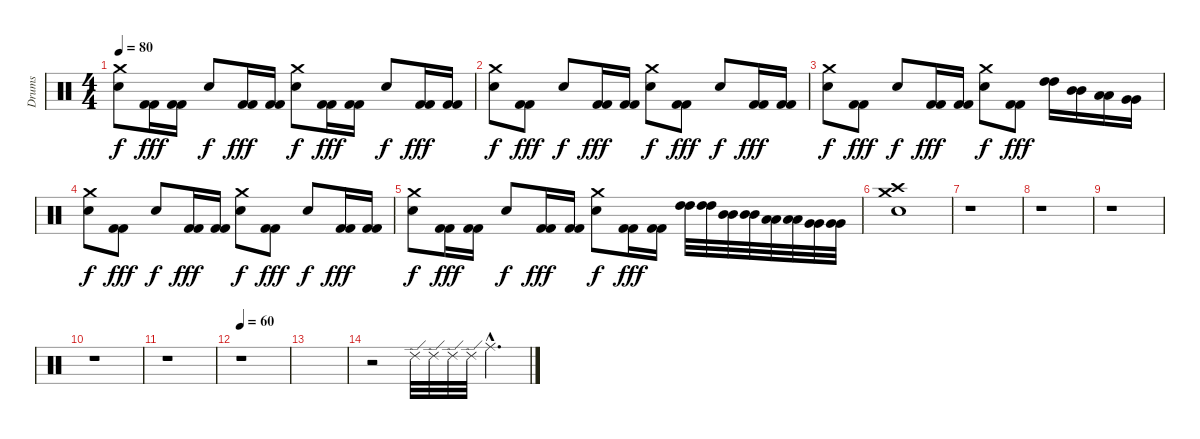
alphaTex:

\track ("Drums" "Drums") {instrument percussion}
\staff {score}
\articulation defaults
\ts (4 4)
\tempo 80
\clef neutral
\ks c
("Electric Snare (hit)" "Crash medium (hit)").8{dy f} ("Kick (hit) 2" "Kick (hit) 2").16{dy fff} ("Kick (hit) 2" "Kick (hit) 2").16 "Electric Snare (hit)".8{dy f} ("Kick (hit) 2" "Kick (hit) 2").16{dy fff} ("Kick (hit) 2" "Kick (hit) 2").16 ("Electric Snare (hit)" "Crash medium (hit)").8{dy f} ("Kick (hit) 2" "Kick (hit) 2").16{dy fff} ("Kick (hit) 2" "Kick (hit) 2").16 "Electric Snare (hit)".8{dy f} ("Kick (hit) 2" "Kick (hit) 2").16{dy fff} ("Kick (hit) 2" "Kick (hit) 2").16 |
("Electric Snare (hit)" "Crash medium (hit)").8{dy f} ("Kick (hit) 2" "Kick (hit) 2").8{dy fff} "Electric Snare (hit)".8{dy f} ("Kick (hit) 2" "Kick (hit) 2").16{dy fff} ("Kick (hit) 2" "Kick (hit) 2").16 ("Electric Snare (hit)" "Crash medium (hit)").8{dy f} ("Kick (hit) 2" "Kick (hit) 2").8{dy fff} "Electric Snare (hit)".8{dy f} ("Kick (hit) 2" "Kick (hit) 2").16{dy fff} ("Kick (hit) 2" "Kick (hit) 2").16 |
("Electric Snare (hit)" "Crash medium (hit)").8{dy f} ("Kick (hit) 2" "Kick (hit) 2").8{dy fff} "Electric Snare (hit)".8{dy f} ("Kick (hit) 2" "Kick (hit) 2").16{dy fff} ("Kick (hit) 2" "Kick (hit) 2").16 ("Electric Snare (hit)" "Crash medium (hit)").8{dy f} ("Kick (hit) 2" "Kick (hit) 2").8{dy fff} ("High Tom (hit)" "High Tom (hit)").16 ("Mid Tom (hit)" "Mid Tom (hit)").16 ("Low Tom (hit)" "Low Tom (hit)").16 ("Very Low Tom (hit)" "Very Low Tom (hit)").16 |
("Electric Snare (hit)" "Crash medium (hit)").8{dy f} ("Kick (hit) 2" "Kick (hit) 2").8{dy fff} "Electric Snare (hit)".8{dy f} ("Kick (hit) 2" "Kick (hit) 2").16{dy fff} ("Kick (hit) 2" "Kick (hit) 2").16 ("Electric Snare (hit)" "Crash medium (hit)").8{dy f} ("Kick (hit) 2" "Kick (hit) 2").8{dy fff} "Electric Snare (hit)".8{dy f} ("Kick (hit) 2" "Kick (hit) 2").16{dy fff} ("Kick (hit) 2" "Kick (hit) 2").16 |
("Electric Snare (hit)" "Crash medium (hit)").8{dy f} ("Kick (hit) 2" "Kick (hit) 2").16{dy fff} ("Kick (hit) 2" "Kick (hit) 2").16 "Electric Snare (hit)".8{dy f} ("Kick (hit) 2" "Kick (hit) 2").16{dy fff} ("Kick (hit) 2" "Kick (hit) 2").16 ("Electric Snare (hit)" "Crash medium (hit)").8{dy f} ("Kick (hit) 2" "Kick (hit) 2").16{dy fff} ("Kick (hit) 2" "Kick (hit) 2").16 ("High Tom (hit)" "High Tom (hit)").32 ("High Tom (hit)" "High Tom (hit)").32 ("Mid Tom (hit)" "Mid Tom (hit)").32 ("Mid Tom (hit)" "Mid Tom (hit)").32 ("Low Tom (hit)" "Low Tom (hit)").32 ("Low Tom (hit)" "Low Tom (hit)").32 ("Very Low Tom (hit)" "Very Low Tom (hit)").32 ("Very Low Tom (hit)" "Very Low Tom (hit)").32 |
("Crash high (hit)" "Crash medium (hit)" "Electric Snare (hit)").1 |
r.1 |
r.1 |
r.1 |
r.1 |
r.1 |
\tempo 60
r.1 |
|
r.2 "Ride (edge) 2".32 "Ride (edge) 2".32 "Ride (edge) 2".32 "Ride (edge) 2".32 "Ride (middle)"{hac}.4{d}
